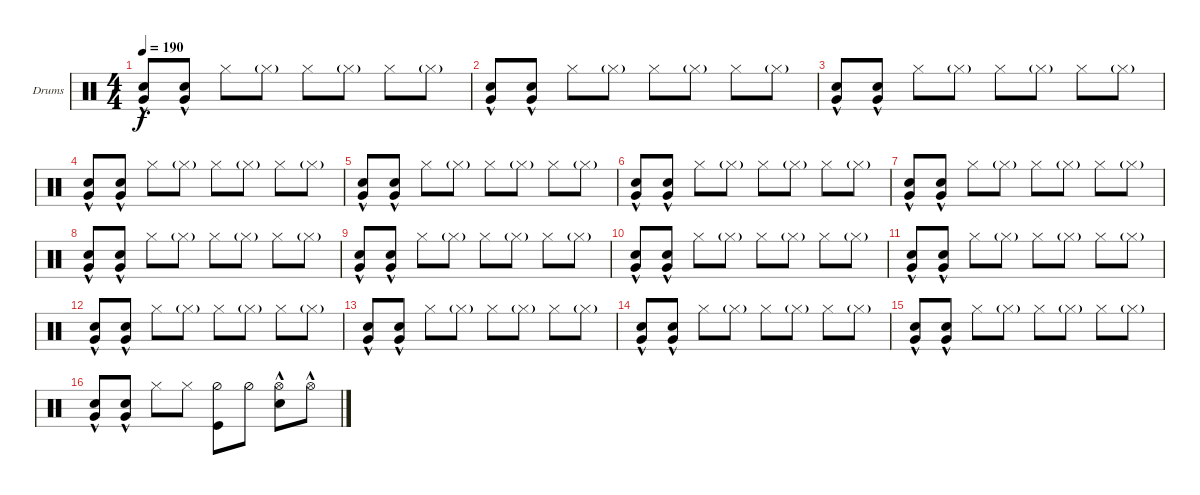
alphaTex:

\bracketExtendMode groupsimilarinstruments
\firstSystemTrackNameOrientation horizontal
\otherSystemsTrackNameOrientation horizontal
\track ("Drumkit" "Drums") {instrument percussion}
\staff {score}
\articulation defaults
\ts (4 4)
\tempo 190
\clef neutral
\scale
0.474178
\ks c
("Snare (hit) 2"{hac} "Very Low Tom (hit)").8{dy f} ("Snare (hit) 2"{hac} "Very Low Tom (hit)").8 "Hi-Hat (closed)".8 "Hi-Hat (closed)"{g}.8 "Hi-Hat (closed)".8 "Hi-Hat (closed)"{g}.8 "Hi-Hat (closed)".8 "Hi-Hat (closed)"{g}.8 |
\scale
0.262911 ("Snare (hit) 2"{hac} "Very Low Tom (hit)").8 ("Snare (hit) 2"{hac} "Very Low Tom (hit)").8 "Hi-Hat (closed)".8 "Hi-Hat (closed)"{g}.8 "Hi-Hat (closed)".8 "Hi-Hat (closed)"{g}.8 "Hi-Hat (closed)".8 "Hi-Hat (closed)"{g}.8 |
\scale
0.262911 ("Snare (hit) 2"{hac} "Very Low Tom (hit)").8 ("Snare (hit) 2"{hac} "Very Low Tom (hit)").8 "Hi-Hat (closed)".8 "Hi-Hat (closed)"{g}.8 "Hi-Hat (closed)".8 "Hi-Hat (closed)"{g}.8 "Hi-Hat (closed)".8 "Hi-Hat (closed)"{g}.8 |
\scale
0.333333 ("Snare (hit) 2"{hac} "Very Low Tom (hit)").8 ("Snare (hit) 2"{hac} "Very Low Tom (hit)").8 "Hi-Hat (closed)".8 "Hi-Hat (closed)"{g}.8 "Hi-Hat (closed)".8 "Hi-Hat (closed)"{g}.8 "Hi-Hat (closed)".8 "Hi-Hat (closed)"{g}.8 |
\scale
0.333333 ("Snare (hit) 2"{hac} "Very Low Tom (hit)").8 ("Snare (hit) 2"{hac} "Very Low Tom (hit)").8 "Hi-Hat (closed)".8 "Hi-Hat (closed)"{g}.8 "Hi-Hat (closed)".8 "Hi-Hat (closed)"{g}.8 "Hi-Hat (closed)".8 "Hi-Hat (closed)"{g}.8 |
\scale
0.333333 ("Snare (hit) 2"{hac} "Very Low Tom (hit)").8 ("Snare (hit) 2"{hac} "Very Low Tom (hit)").8 "Hi-Hat (closed)".8 "Hi-Hat (closed)"{g}.8 "Hi-Hat (closed)".8 "Hi-Hat (closed)"{g}.8 "Hi-Hat (closed)".8 "Hi-Hat (closed)"{g}.8 |
\scale
0.333333 ("Snare (hit) 2"{hac} "Very Low Tom (hit)").8 ("Snare (hit) 2"{hac} "Very Low Tom (hit)").8 "Hi-Hat (closed)".8 "Hi-Hat (closed)"{g}.8 "Hi-Hat (closed)".8 "Hi-Hat (closed)"{g}.8 "Hi-Hat (closed)".8 "Hi-Hat (closed)"{g}.8 |
\scale
0.333333 ("Snare (hit) 2"{hac} "Very Low Tom (hit)").8 ("Snare (hit) 2"{hac} "Very Low Tom (hit)").8 "Hi-Hat (closed)".8 "Hi-Hat (closed)"{g}.8 "Hi-Hat (closed)".8 "Hi-Hat (closed)"{g}.8 "Hi-Hat (closed)".8 "Hi-Hat (closed)"{g}.8 |
\scale
0.333333 ("Snare (hit) 2"{hac} "Very Low Tom (hit)").8 ("Snare (hit) 2"{hac} "Very Low Tom (hit)").8 "Hi-Hat (closed)".8 "Hi-Hat (closed)"{g}.8 "Hi-Hat (closed)".8 "Hi-Hat (closed)"{g}.8 "Hi-Hat (closed)".8 "Hi-Hat (closed)"{g}.8 |
\scale
0.333333 ("Snare (hit) 2"{hac} "Very Low Tom (hit)").8 ("Snare (hit) 2"{hac} "Very Low Tom (hit)").8 "Hi-Hat (closed)".8 "Hi-Hat (closed)"{g}.8 "Hi-Hat (closed)".8 "Hi-Hat (closed)"{g}.8 "Hi-Hat (closed)".8 "Hi-Hat (closed)"{g}.8 |
\scale
0.333333 ("Snare (hit) 2"{hac} "Very Low Tom (hit)").8 ("Snare (hit) 2"{hac} "Very Low Tom (hit)").8 "Hi-Hat (closed)".8 "Hi-Hat (closed)"{g}.8 "Hi-Hat (closed)".8 "Hi-Hat (closed)"{g}.8 "Hi-Hat (closed)".8 "Hi-Hat (closed)"{g}.8 |
\scale
0.333333 ("Snare (hit) 2"{hac} "Very Low Tom (hit)").8 ("Snare (hit) 2"{hac} "Very Low Tom (hit)").8 "Hi-Hat (closed)".8 "Hi-Hat (closed)"{g}.8 "Hi-Hat (closed)".8 "Hi-Hat (closed)"{g}.8 "Hi-Hat (closed)".8 "Hi-Hat (closed)"{g}.8 |
\scale
0.333333 ("Snare (hit) 2"{hac} "Very Low Tom (hit)").8 ("Snare (hit) 2"{hac} "Very Low Tom (hit)").8 "Hi-Hat (closed)".8 "Hi-Hat (closed)"{g}.8 "Hi-Hat (closed)".8 "Hi-Hat (closed)"{g}.8 "Hi-Hat (closed)".8 "Hi-Hat (closed)"{g}.8 |
\scale
0.333333 ("Snare (hit) 2"{hac} "Very Low Tom (hit)").8 ("Snare (hit) 2"{hac} "Very Low Tom (hit)").8 "Hi-Hat (closed)".8 "Hi-Hat (closed)"{g}.8 "Hi-Hat (closed)".8 "Hi-Hat (closed)"{g}.8 "Hi-Hat (closed)".8 "Hi-Hat (closed)"{g}.8 |
\scale
0.333333 ("Snare (hit) 2"{hac} "Very Low Tom (hit)").8 ("Snare (hit) 2"{hac} "Very Low Tom (hit)").8 "Hi-Hat (closed)".8 "Hi-Hat (closed)"{g}.8 "Hi-Hat (closed)".8 "Hi-Hat (closed)"{g}.8 "Hi-Hat (closed)".8 "Hi-Hat (closed)"{g}.8 |
\scale
0.333333 ("Snare (hit) 2"{hac} "Very Low Tom (hit)").8 ("Snare (hit) 2"{hac} "Very Low Tom (hit)").8 "Hi-Hat (closed)".8 "Hi-Hat (closed)".8 ("Kick (hit)" "Hi-Hat (half)").8 "Hi-Hat (half)".8 ("Hi-Hat (open)" "Snare (hit) 2"{hac}).8 "Hi-Hat (open)"{hac}.8
